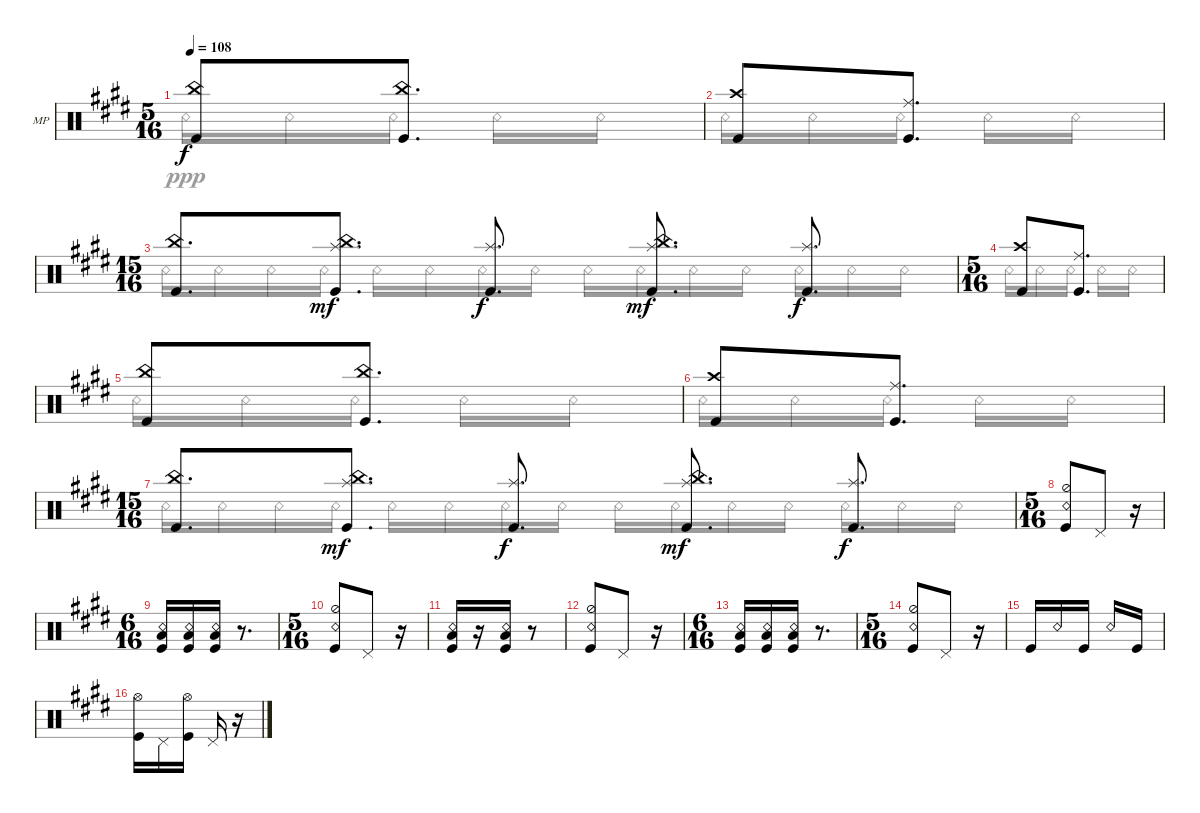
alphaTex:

\defaultSystemsLayout 4
\bracketExtendMode groupsimilarinstruments
\firstSystemTrackNameOrientation horizontal
\otherSystemsTrackNameOrientation horizontal
\track ("Mike Portnoy" "MP") {instrument percussion}
\staff {score}
\articulation defaults
\voice
\ts (5 16)
\tempo 108
\clef neutral
\ks e
("China (hit)" "Kick (hit)").8{dy f} ("China (hit)" "Kick (hit)").8{d} |
("Crash high (hit)" "Kick (hit)").8 ("Ride (middle)" "Kick (hit)").8{d} |
\ts (15 16)
("China (hit)" "Kick (hit)").8{d} ("China (hit)" "Splash (hit)" "Kick (hit)").8{d dy mf} ("Splash (hit)" "Kick (hit)").8{d dy f} ("China (hit)" "Splash (hit)" "Kick (hit)").8{d dy mf} ("Splash (hit)" "Kick (hit)").8{d dy f} |
\ts (5 16)
("Crash high (hit)" "Kick (hit)").8 ("Ride (middle)" "Kick (hit)").8{d} |
("China (hit)" "Kick (hit)").8 ("China (hit)" "Kick (hit)").8{d} |
("Crash high (hit)" "Kick (hit)").8 ("Ride (middle)" "Kick (hit)").8{d} |
\ts (15 16)
("China (hit)" "Kick (hit)").8{d} ("China (hit)" "Splash (hit)" "Kick (hit)").8{d dy mf} ("Splash (hit)" "Kick (hit)").8{d dy f} ("China (hit)" "Splash (hit)" "Kick (hit)").8{d dy mf} ("Splash (hit)" "Kick (hit)").8{d dy f} |
\ts (5 16)
("Hi-Hat (half)" "Snare (rim shot)" "Kick (hit)").8 "Pedal Hi-Hat (hit)".8 r.16 |
\ts (6 16)
("Snare (rim shot)" "Kick (hit)" "Low Tom (hit)").16 ("Snare (rim shot)" "Kick (hit)" "Low Tom (hit)").16 ("Snare (rim shot)" "Kick (hit)" "Low Tom (hit)").16 r.8{d} |
\ts (5 16)
("Hi-Hat (half)" "Snare (rim shot)" "Kick (hit)").8 "Pedal Hi-Hat (hit)".8 r.16 |
("Snare (rim shot)" "Kick (hit)" "Low Tom (hit)").16 r.16 ("Snare (rim shot)" "Kick (hit)" "Low Tom (hit)").16 r.8 |
("Hi-Hat (half)" "Snare (rim shot)" "Kick (hit)").8 "Pedal Hi-Hat (hit)".8 r.16 |
\ts (6 16)
("Snare (rim shot)" "Kick (hit)" "Low Tom (hit)").16 ("Snare (rim shot)" "Kick (hit)" "Low Tom (hit)").16 ("Snare (rim shot)" "Kick (hit)" "Low Tom (hit)").16 r.8{d} |
\ts (5 16)
("Hi-Hat (half)" "Snare (rim shot)" "Kick (hit)").8 "Pedal Hi-Hat (hit)".8 r.16 |
"Kick (hit)".16 "Snare (rim shot)".16 "Kick (hit)".16 "Snare (rim shot)".16 "Kick (hit)".16 |
("Hi-Hat (open)" "Kick (hit)").16 "Pedal Hi-Hat (hit)".16 ("Hi-Hat (open)" "Kick (hit)").16 "Pedal Hi-Hat (hit)".16 r.16
\voice
\clef neutral
\ottava regular
\simile none
\ks e "Snare (rim shot)".16{dy ppp} "Snare (rim shot)".16 "Snare (rim shot)".16 "Snare (rim shot)".16 "Snare (rim shot)".16
|
"Snare (rim shot)".16 "Snare (rim shot)".16 "Snare (rim shot)".16 "Snare (rim shot)".16 "Snare (rim shot)".16 |
"Snare (rim shot)".16 "Snare (rim shot)".16 "Snare (rim shot)".16 "Snare (rim shot)".16 "Snare (rim shot)".16 "Snare (rim shot)".16 "Snare (rim shot)".16 "Snare (rim shot)".16 "Snare (rim shot)".16 "Snare (rim shot)".16 "Snare (rim shot)".16 "Snare (rim shot)".16 "Snare (rim shot)".16 "Snare (rim shot)".16 "Snare (rim shot)".16 |
"Snare (rim shot)".16 "Snare (rim shot)".16 "Snare (rim shot)".16 "Snare (rim shot)".16 "Snare (rim shot)".16 |
"Snare (rim shot)".16 "Snare (rim shot)".16 "Snare (rim shot)".16 "Snare (rim shot)".16 "Snare (rim shot)".16 |
"Snare (rim shot)".16 "Snare (rim shot)".16 "Snare (rim shot)".16 "Snare (rim shot)".16 "Snare (rim shot)".16 |
"Snare (rim shot)".16 "Snare (rim shot)".16 "Snare (rim shot)".16 "Snare (rim shot)".16 "Snare (rim shot)".16 "Snare (rim shot)".16 "Snare (rim shot)".16 "Snare (rim shot)".16 "Snare (rim shot)".16 "Snare (rim shot)".16 "Snare (rim shot)".16 "Snare (rim shot)".16 "Snare (rim shot)".16 "Snare (rim shot)".16 "Snare (rim shot)".16 |
|
|
|
|
|
|
|
|
